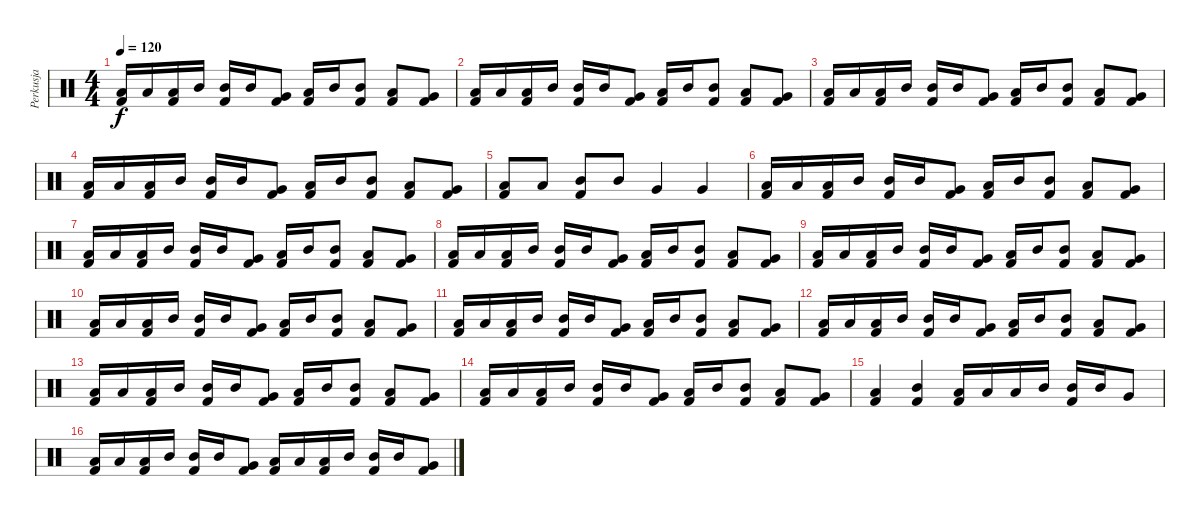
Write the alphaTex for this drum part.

\track ("Perkusja" "Perkusja") {instrument percussion}
\staff {score}
\articulation defaults
\ts (4 4)
\tempo 120
\clef neutral
\ks c
("Low Tom (hit)" "Kick (hit) 2").16{dy f} "Low Tom (hit)".16 ("Low Tom (hit)" "Kick (hit) 2").16 "Mid Tom (hit)".16 ("Mid Tom (hit)" "Kick (hit) 2").16 "Mid Tom (hit)".16 ("Very Low Tom (hit)" "Kick (hit) 2").8 ("Low Tom (hit)" "Kick (hit) 2").16 "Mid Tom (hit)".16 ("Mid Tom (hit)" "Kick (hit) 2").8 ("Low Tom (hit)" "Kick (hit) 2").8 ("Very Low Tom (hit)" "Kick (hit) 2").8 |
("Low Tom (hit)" "Kick (hit) 2").16 "Low Tom (hit)".16 ("Low Tom (hit)" "Kick (hit) 2").16 "Mid Tom (hit)".16 ("Mid Tom (hit)" "Kick (hit) 2").16 "Mid Tom (hit)".16 ("Very Low Tom (hit)" "Kick (hit) 2").8 ("Low Tom (hit)" "Kick (hit) 2").16 "Mid Tom (hit)".16 ("Mid Tom (hit)" "Kick (hit) 2").8 ("Low Tom (hit)" "Kick (hit) 2").8 ("Very Low Tom (hit)" "Kick (hit) 2").8 |
("Low Tom (hit)" "Kick (hit) 2").16 "Low Tom (hit)".16 ("Low Tom (hit)" "Kick (hit) 2").16 "Mid Tom (hit)".16 ("Mid Tom (hit)" "Kick (hit) 2").16 "Mid Tom (hit)".16 ("Very Low Tom (hit)" "Kick (hit) 2").8 ("Low Tom (hit)" "Kick (hit) 2").16 "Mid Tom (hit)".16 ("Mid Tom (hit)" "Kick (hit) 2").8 ("Low Tom (hit)" "Kick (hit) 2").8 ("Very Low Tom (hit)" "Kick (hit) 2").8 |
("Low Tom (hit)" "Kick (hit) 2").16 "Low Tom (hit)".16 ("Low Tom (hit)" "Kick (hit) 2").16 "Mid Tom (hit)".16 ("Mid Tom (hit)" "Kick (hit) 2").16 "Mid Tom (hit)".16 ("Very Low Tom (hit)" "Kick (hit) 2").8 ("Low Tom (hit)" "Kick (hit) 2").16 "Mid Tom (hit)".16 ("Mid Tom (hit)" "Kick (hit) 2").8 ("Low Tom (hit)" "Kick (hit) 2").8 ("Very Low Tom (hit)" "Kick (hit) 2").8 |
("Low Tom (hit)" "Kick (hit) 2").8 "Low Tom (hit)".8 ("Mid Tom (hit)" "Kick (hit) 2").8 "Mid Tom (hit)".8 "Very Low Tom (hit)".4 "Very Low Tom (hit)".4 |
("Low Tom (hit)" "Kick (hit) 2").16 "Low Tom (hit)".16 ("Low Tom (hit)" "Kick (hit) 2").16 "Mid Tom (hit)".16 ("Mid Tom (hit)" "Kick (hit) 2").16 "Mid Tom (hit)".16 ("Very Low Tom (hit)" "Kick (hit) 2").8 ("Low Tom (hit)" "Kick (hit) 2").16 "Mid Tom (hit)".16 ("Mid Tom (hit)" "Kick (hit) 2").8 ("Low Tom (hit)" "Kick (hit) 2").8 ("Very Low Tom (hit)" "Kick (hit) 2").8 |
("Low Tom (hit)" "Kick (hit) 2").16 "Low Tom (hit)".16 ("Low Tom (hit)" "Kick (hit) 2").16 "Mid Tom (hit)".16 ("Mid Tom (hit)" "Kick (hit) 2").16 "Mid Tom (hit)".16 ("Very Low Tom (hit)" "Kick (hit) 2").8 ("Low Tom (hit)" "Kick (hit) 2").16 "Mid Tom (hit)".16 ("Mid Tom (hit)" "Kick (hit) 2").8 ("Low Tom (hit)" "Kick (hit) 2").8 ("Very Low Tom (hit)" "Kick (hit) 2").8 |
("Low Tom (hit)" "Kick (hit) 2").16 "Low Tom (hit)".16 ("Low Tom (hit)" "Kick (hit) 2").16 "Mid Tom (hit)".16 ("Mid Tom (hit)" "Kick (hit) 2").16 "Mid Tom (hit)".16 ("Very Low Tom (hit)" "Kick (hit) 2").8 ("Low Tom (hit)" "Kick (hit) 2").16 "Mid Tom (hit)".16 ("Mid Tom (hit)" "Kick (hit) 2").8 ("Low Tom (hit)" "Kick (hit) 2").8 ("Very Low Tom (hit)" "Kick (hit) 2").8 |
("Low Tom (hit)" "Kick (hit) 2").16 "Low Tom (hit)".16 ("Low Tom (hit)" "Kick (hit) 2").16 "Mid Tom (hit)".16 ("Mid Tom (hit)" "Kick (hit) 2").16 "Mid Tom (hit)".16 ("Very Low Tom (hit)" "Kick (hit) 2").8 ("Low Tom (hit)" "Kick (hit) 2").16 "Mid Tom (hit)".16 ("Mid Tom (hit)" "Kick (hit) 2").8 ("Low Tom (hit)" "Kick (hit) 2").8 ("Very Low Tom (hit)" "Kick (hit) 2").8 |
("Low Tom (hit)" "Kick (hit) 2").16 "Low Tom (hit)".16 ("Low Tom (hit)" "Kick (hit) 2").16 "Mid Tom (hit)".16 ("Mid Tom (hit)" "Kick (hit) 2").16 "Mid Tom (hit)".16 ("Very Low Tom (hit)" "Kick (hit) 2").8 ("Low Tom (hit)" "Kick (hit) 2").16 "Mid Tom (hit)".16 ("Mid Tom (hit)" "Kick (hit) 2").8 ("Low Tom (hit)" "Kick (hit) 2").8 ("Very Low Tom (hit)" "Kick (hit) 2").8 |
("Low Tom (hit)" "Kick (hit) 2").16 "Low Tom (hit)".16 ("Low Tom (hit)" "Kick (hit) 2").16 "Mid Tom (hit)".16 ("Mid Tom (hit)" "Kick (hit) 2").16 "Mid Tom (hit)".16 ("Very Low Tom (hit)" "Kick (hit) 2").8 ("Low Tom (hit)" "Kick (hit) 2").16 "Mid Tom (hit)".16 ("Mid Tom (hit)" "Kick (hit) 2").8 ("Low Tom (hit)" "Kick (hit) 2").8 ("Very Low Tom (hit)" "Kick (hit) 2").8 |
("Low Tom (hit)" "Kick (hit) 2").16 "Low Tom (hit)".16 ("Low Tom (hit)" "Kick (hit) 2").16 "Mid Tom (hit)".16 ("Mid Tom (hit)" "Kick (hit) 2").16 "Mid Tom (hit)".16 ("Very Low Tom (hit)" "Kick (hit) 2").8 ("Low Tom (hit)" "Kick (hit) 2").16 "Mid Tom (hit)".16 ("Mid Tom (hit)" "Kick (hit) 2").8 ("Low Tom (hit)" "Kick (hit) 2").8 ("Very Low Tom (hit)" "Kick (hit) 2").8 |
("Low Tom (hit)" "Kick (hit) 2").16 "Low Tom (hit)".16 ("Low Tom (hit)" "Kick (hit) 2").16 "Mid Tom (hit)".16 ("Mid Tom (hit)" "Kick (hit) 2").16 "Mid Tom (hit)".16 ("Very Low Tom (hit)" "Kick (hit) 2").8 ("Low Tom (hit)" "Kick (hit) 2").16 "Mid Tom (hit)".16 ("Mid Tom (hit)" "Kick (hit) 2").8 ("Low Tom (hit)" "Kick (hit) 2").8 ("Very Low Tom (hit)" "Kick (hit) 2").8 |
("Low Tom (hit)" "Kick (hit) 2").16 "Low Tom (hit)".16 ("Low Tom (hit)" "Kick (hit) 2").16 "Mid Tom (hit)".16 ("Mid Tom (hit)" "Kick (hit) 2").16 "Mid Tom (hit)".16 ("Very Low Tom (hit)" "Kick (hit) 2").8 ("Low Tom (hit)" "Kick (hit) 2").16 "Mid Tom (hit)".16 ("Mid Tom (hit)" "Kick (hit) 2").8 ("Low Tom (hit)" "Kick (hit) 2").8 ("Very Low Tom (hit)" "Kick (hit) 2").8 |
("Low Tom (hit)" "Kick (hit) 2").4 ("Mid Tom (hit)" "Kick (hit) 2").4 ("Low Tom (hit)" "Kick (hit) 2").16 "Low Tom (hit)".16 "Low Tom (hit)".16 "Mid Tom (hit)".16 ("Mid Tom (hit)" "Kick (hit) 2").16 "Mid Tom (hit)".16 "Very Low Tom (hit)".8 |
("Low Tom (hit)" "Kick (hit) 2").16 "Low Tom (hit)".16 ("Low Tom (hit)" "Kick (hit) 2").16 "Mid Tom (hit)".16 ("Mid Tom (hit)" "Kick (hit) 2").16 "Mid Tom (hit)".16 ("Very Low Tom (hit)" "Kick (hit) 2").8 ("Low Tom (hit)" "Kick (hit) 2").16 "Low Tom (hit)".16 ("Low Tom (hit)" "Kick (hit) 2").16 "Mid Tom (hit)".16 ("Mid Tom (hit)" "Kick (hit) 2").16 "Mid Tom (hit)".16 ("Very Low Tom (hit)" "Kick (hit) 2").8
